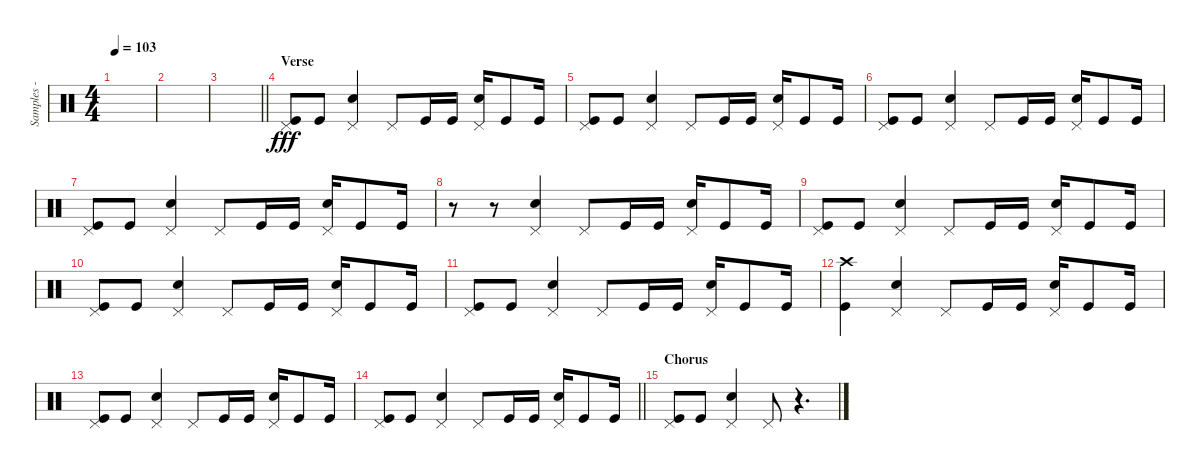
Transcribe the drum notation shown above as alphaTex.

\track ("Samples - Joe Hahn" "Samples - ") {instrument percussion}
\staff {score}
\articulation defaults
\ts (4 4)
\tempo 103
\clef neutral
\ks c
|
|
\barLineRight lightlight
|
\section ("" "Verse")
("Pedal Hi-Hat (hit)" "Kick (hit)").8{dy fff volume 12} "Kick (hit)".8 ("Pedal Hi-Hat (hit)" "Snare (hit) 2").4 "Pedal Hi-Hat (hit)".8 "Kick (hit)".16 "Kick (hit)".16 ("Pedal Hi-Hat (hit)" "Snare (hit) 2").16 "Kick (hit)".8 "Kick (hit)".16 |
("Pedal Hi-Hat (hit)" "Kick (hit)").8 "Kick (hit)".8 ("Pedal Hi-Hat (hit)" "Snare (hit) 2").4 "Pedal Hi-Hat (hit)".8 "Kick (hit)".16 "Kick (hit)".16 ("Pedal Hi-Hat (hit)" "Snare (hit) 2").16 "Kick (hit)".8 "Kick (hit)".16 |
("Pedal Hi-Hat (hit)" "Kick (hit)").8 "Kick (hit)".8 ("Pedal Hi-Hat (hit)" "Snare (hit) 2").4 "Pedal Hi-Hat (hit)".8 "Kick (hit)".16 "Kick (hit)".16 ("Pedal Hi-Hat (hit)" "Snare (hit) 2").16 "Kick (hit)".8 "Kick (hit)".16 |
("Pedal Hi-Hat (hit)" "Kick (hit)").8 "Kick (hit)".8 ("Pedal Hi-Hat (hit)" "Snare (hit) 2").4 "Pedal Hi-Hat (hit)".8 "Kick (hit)".16 "Kick (hit)".16 ("Pedal Hi-Hat (hit)" "Snare (hit) 2").16 "Kick (hit)".8 "Kick (hit)".16 |
r.8 r.8 ("Pedal Hi-Hat (hit)" "Snare (hit) 2").4 "Pedal Hi-Hat (hit)".8 "Kick (hit)".16 "Kick (hit)".16 ("Pedal Hi-Hat (hit)" "Snare (hit) 2").16 "Kick (hit)".8 "Kick (hit)".16 |
("Pedal Hi-Hat (hit)" "Kick (hit)").8 "Kick (hit)".8 ("Pedal Hi-Hat (hit)" "Snare (hit) 2").4 "Pedal Hi-Hat (hit)".8 "Kick (hit)".16 "Kick (hit)".16 ("Pedal Hi-Hat (hit)" "Snare (hit) 2").16 "Kick (hit)".8 "Kick (hit)".16 |
("Pedal Hi-Hat (hit)" "Kick (hit)").8 "Kick (hit)".8 ("Pedal Hi-Hat (hit)" "Snare (hit) 2").4 "Pedal Hi-Hat (hit)".8 "Kick (hit)".16 "Kick (hit)".16 ("Pedal Hi-Hat (hit)" "Snare (hit) 2").16 "Kick (hit)".8 "Kick (hit)".16 |
("Pedal Hi-Hat (hit)" "Kick (hit)").8 "Kick (hit)".8 ("Pedal Hi-Hat (hit)" "Snare (hit) 2").4 "Pedal Hi-Hat (hit)".8 "Kick (hit)".16 "Kick (hit)".16 ("Pedal Hi-Hat (hit)" "Snare (hit) 2").16 "Kick (hit)".8 "Kick (hit)".16 |
("Crash high (hit)" "Kick (hit)").4 ("Pedal Hi-Hat (hit)" "Snare (hit) 2").4 "Pedal Hi-Hat (hit)".8 "Kick (hit)".16 "Kick (hit)".16 ("Pedal Hi-Hat (hit)" "Snare (hit) 2").16 "Kick (hit)".8 "Kick (hit)".16 |
("Pedal Hi-Hat (hit)" "Kick (hit)").8 "Kick (hit)".8 ("Pedal Hi-Hat (hit)" "Snare (hit) 2").4 "Pedal Hi-Hat (hit)".8 "Kick (hit)".16 "Kick (hit)".16 ("Pedal Hi-Hat (hit)" "Snare (hit) 2").16 "Kick (hit)".8 "Kick (hit)".16 |
\barLineRight lightlight
("Pedal Hi-Hat (hit)" "Kick (hit)").8 "Kick (hit)".8 ("Pedal Hi-Hat (hit)" "Snare (hit) 2").4 "Pedal Hi-Hat (hit)".8 "Kick (hit)".16 "Kick (hit)".16 ("Pedal Hi-Hat (hit)" "Snare (hit) 2").16 "Kick (hit)".8 "Kick (hit)".16 |
\section ("" "Chorus")
("Pedal Hi-Hat (hit)" "Kick (hit)").8 "Kick (hit)".8 ("Pedal Hi-Hat (hit)" "Snare (hit) 2").4 "Pedal Hi-Hat (hit)".8 r.4{d}
